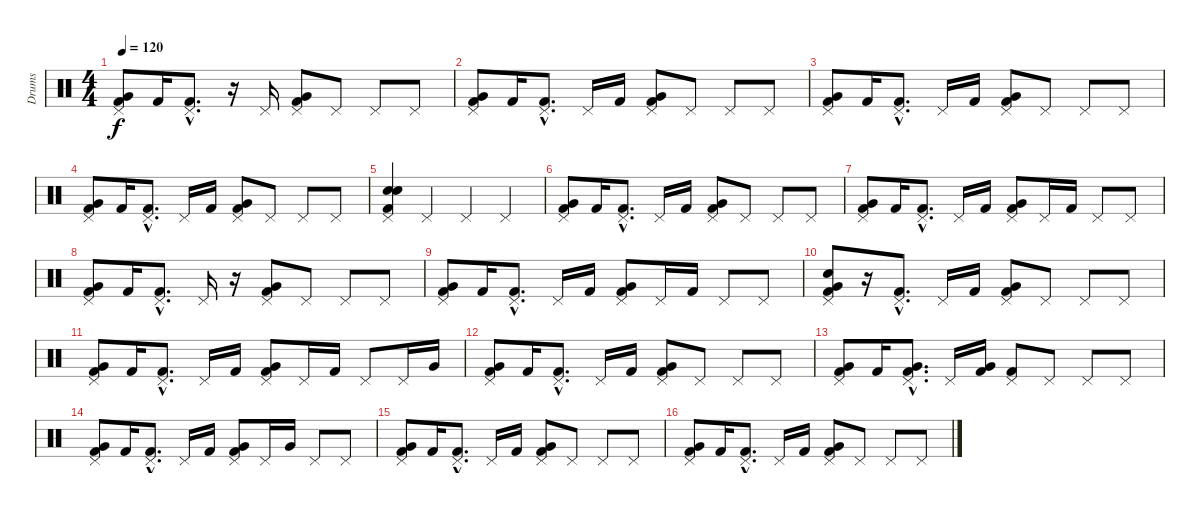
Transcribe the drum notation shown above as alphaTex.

\track ("Drums" "Drums") {instrument percussion}
\staff {score}
\articulation defaults
\ts (4 4)
\tempo 120
\clef neutral
\ks c
("Pedal Hi-Hat (hit)" "Very Low Tom (hit)" "Kick (hit) 2").8{dy f} "Kick (hit) 2".16 ("Pedal Hi-Hat (hit)"{hac} "Kick (hit) 2"{hac}).8{d} r.16 "Pedal Hi-Hat (hit)".16 ("Pedal Hi-Hat (hit)" "Very Low Tom (hit)" "Kick (hit) 2").8 "Pedal Hi-Hat (hit)".8 "Pedal Hi-Hat (hit)".8 "Pedal Hi-Hat (hit)".8 |
("Pedal Hi-Hat (hit)" "Very Low Tom (hit)" "Kick (hit) 2").8 "Kick (hit) 2".16 ("Pedal Hi-Hat (hit)"{hac} "Kick (hit) 2"{hac}).8{d} "Pedal Hi-Hat (hit)".16 "Kick (hit) 2".16 ("Pedal Hi-Hat (hit)" "Very Low Tom (hit)" "Kick (hit) 2").8 "Pedal Hi-Hat (hit)".8 "Pedal Hi-Hat (hit)".8 "Pedal Hi-Hat (hit)".8 |
("Pedal Hi-Hat (hit)" "Very Low Tom (hit)" "Kick (hit) 2").8 "Kick (hit) 2".16 ("Pedal Hi-Hat (hit)"{hac} "Kick (hit) 2"{hac}).8{d} "Pedal Hi-Hat (hit)".16 "Kick (hit) 2".16 ("Pedal Hi-Hat (hit)" "Very Low Tom (hit)" "Kick (hit) 2").8 "Pedal Hi-Hat (hit)".8 "Pedal Hi-Hat (hit)".8 "Pedal Hi-Hat (hit)".8 |
("Pedal Hi-Hat (hit)" "Very Low Tom (hit)" "Kick (hit) 2").8 "Kick (hit) 2".16 ("Pedal Hi-Hat (hit)"{hac} "Kick (hit) 2"{hac}).8{d} "Pedal Hi-Hat (hit)".16 "Kick (hit) 2".16 ("Pedal Hi-Hat (hit)" "Very Low Tom (hit)" "Kick (hit) 2").8 "Pedal Hi-Hat (hit)".8 "Pedal Hi-Hat (hit)".8 "Pedal Hi-Hat (hit)".8 |
("Pedal Hi-Hat (hit)" "Electric Snare (hit)" "Electric Snare (hit)" "Kick (hit) 2").4 "Pedal Hi-Hat (hit)".4 "Pedal Hi-Hat (hit)".4 "Pedal Hi-Hat (hit)".4 |
("Pedal Hi-Hat (hit)" "Very Low Tom (hit)" "Kick (hit) 2").8 "Kick (hit) 2".16 ("Pedal Hi-Hat (hit)"{hac} "Kick (hit) 2"{hac}).8{d} "Pedal Hi-Hat (hit)".16 "Kick (hit) 2".16 ("Pedal Hi-Hat (hit)" "Very Low Tom (hit)" "Kick (hit) 2").8 "Pedal Hi-Hat (hit)".8 "Pedal Hi-Hat (hit)".8 "Pedal Hi-Hat (hit)".8 |
("Pedal Hi-Hat (hit)" "Very Low Tom (hit)" "Kick (hit) 2").8 "Kick (hit) 2".16 ("Pedal Hi-Hat (hit)"{hac} "Kick (hit) 2"{hac}).8{d} "Pedal Hi-Hat (hit)".16 "Kick (hit) 2".16 ("Pedal Hi-Hat (hit)" "Very Low Tom (hit)" "Kick (hit) 2").8 "Pedal Hi-Hat (hit)".16 "Kick (hit) 2".16 "Pedal Hi-Hat (hit)".8 "Pedal Hi-Hat (hit)".8 |
("Pedal Hi-Hat (hit)" "Very Low Tom (hit)" "Kick (hit) 2").8 "Kick (hit) 2".16 ("Pedal Hi-Hat (hit)"{hac} "Kick (hit) 2"{hac}).8{d} "Pedal Hi-Hat (hit)".16 r.16 ("Pedal Hi-Hat (hit)" "Very Low Tom (hit)" "Kick (hit) 2").8 "Pedal Hi-Hat (hit)".8 "Pedal Hi-Hat (hit)".8 "Pedal Hi-Hat (hit)".8 |
("Pedal Hi-Hat (hit)" "Very Low Tom (hit)" "Kick (hit) 2").8 "Kick (hit) 2".16 ("Pedal Hi-Hat (hit)"{hac} "Kick (hit) 2"{hac}).8{d} "Pedal Hi-Hat (hit)".16 "Kick (hit) 2".16 ("Pedal Hi-Hat (hit)" "Very Low Tom (hit)" "Kick (hit) 2").8 "Pedal Hi-Hat (hit)".16 "Kick (hit) 2".16 "Pedal Hi-Hat (hit)".8 "Pedal Hi-Hat (hit)".8 |
("Pedal Hi-Hat (hit)" "Electric Snare (hit)" "Very Low Tom (hit)" "Kick (hit) 2").8 r.16 ("Pedal Hi-Hat (hit)"{hac} "Kick (hit) 2"{hac}).8{d} "Pedal Hi-Hat (hit)".16 "Kick (hit) 2".16 ("Pedal Hi-Hat (hit)" "Very Low Tom (hit)" "Kick (hit) 2").8 "Pedal Hi-Hat (hit)".8 "Pedal Hi-Hat (hit)".8 "Pedal Hi-Hat (hit)".8 |
("Pedal Hi-Hat (hit)" "Very Low Tom (hit)" "Kick (hit) 2").8 "Kick (hit) 2".16 ("Pedal Hi-Hat (hit)"{hac} "Kick (hit) 2"{hac}).8{d} "Pedal Hi-Hat (hit)".16 "Kick (hit) 2".16 ("Pedal Hi-Hat (hit)" "Very Low Tom (hit)" "Kick (hit) 2").8 "Pedal Hi-Hat (hit)".16 "Kick (hit) 2".16 "Pedal Hi-Hat (hit)".8 "Pedal Hi-Hat (hit)".16 "Very Low Tom (hit)".16 |
("Pedal Hi-Hat (hit)" "Very Low Tom (hit)" "Kick (hit) 2").8 "Kick (hit) 2".16 ("Pedal Hi-Hat (hit)"{hac} "Kick (hit) 2"{hac}).8{d} "Pedal Hi-Hat (hit)".16 "Kick (hit) 2".16 ("Pedal Hi-Hat (hit)" "Very Low Tom (hit)" "Kick (hit) 2").8 "Pedal Hi-Hat (hit)".8 "Pedal Hi-Hat (hit)".8 "Pedal Hi-Hat (hit)".8 |
("Pedal Hi-Hat (hit)" "Very Low Tom (hit)" "Kick (hit) 2").8 "Kick (hit) 2".16 ("Pedal Hi-Hat (hit)"{hac} "Very Low Tom (hit)"{hac} "Kick (hit) 2"{hac}).8{d} "Pedal Hi-Hat (hit)".16 ("Very Low Tom (hit)" "Kick (hit) 2").16 ("Pedal Hi-Hat (hit)" "Kick (hit) 2").8 "Pedal Hi-Hat (hit)".8 "Pedal Hi-Hat (hit)".8 "Pedal Hi-Hat (hit)".8 |
("Pedal Hi-Hat (hit)" "Very Low Tom (hit)" "Kick (hit) 2").8 "Kick (hit) 2".16 ("Pedal Hi-Hat (hit)"{hac} "Kick (hit) 2"{hac}).8{d} "Pedal Hi-Hat (hit)".16 "Kick (hit) 2".16 ("Pedal Hi-Hat (hit)" "Very Low Tom (hit)" "Kick (hit) 2").8 "Pedal Hi-Hat (hit)".16 "Very Low Tom (hit)".16 "Pedal Hi-Hat (hit)".8 "Pedal Hi-Hat (hit)".8 |
("Pedal Hi-Hat (hit)" "Very Low Tom (hit)" "Kick (hit) 2").8 "Kick (hit) 2".16 ("Pedal Hi-Hat (hit)"{hac} "Kick (hit) 2"{hac}).8{d} "Pedal Hi-Hat (hit)".16 "Kick (hit) 2".16 ("Pedal Hi-Hat (hit)" "Very Low Tom (hit)" "Kick (hit) 2").8 "Pedal Hi-Hat (hit)".8 "Pedal Hi-Hat (hit)".8 "Pedal Hi-Hat (hit)".8 |
("Pedal Hi-Hat (hit)" "Very Low Tom (hit)" "Kick (hit) 2").8 "Kick (hit) 2".16 ("Pedal Hi-Hat (hit)"{hac} "Kick (hit) 2"{hac}).8{d} "Pedal Hi-Hat (hit)".16 "Kick (hit) 2".16 ("Pedal Hi-Hat (hit)" "Very Low Tom (hit)" "Kick (hit) 2").8 "Pedal Hi-Hat (hit)".8 "Pedal Hi-Hat (hit)".8 "Pedal Hi-Hat (hit)".8
